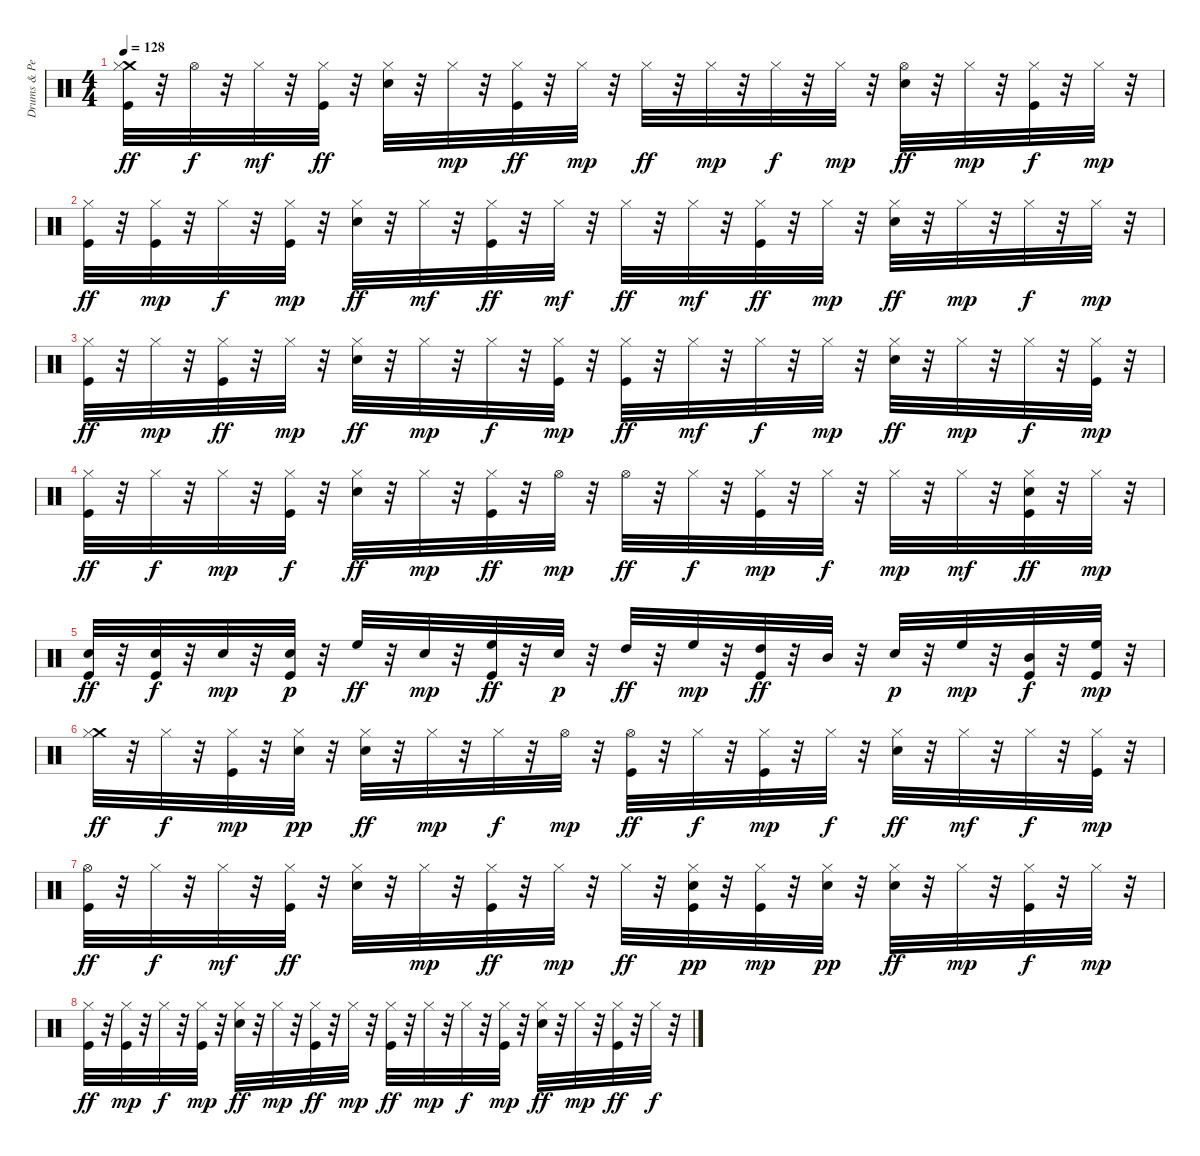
\track ("Drums & Percussion" "Drums & Pe") {instrument percussion}
\staff {score}
\articulation defaults
\ts (4 4)
\tempo 128
\clef neutral
\ks c
("Crash medium (hit)" "Kick (hit)" "Hi-Hat (closed)").32{dy ff} r.32 "Hi-Hat (open)".32{dy f} r.32 "Hi-Hat (closed)".32{dy mf} r.32 ("Kick (hit)" "Hi-Hat (closed)").32{dy ff} r.32 ("Hi-Hat (closed)" "Electric Snare (hit)").32 r.32 "Hi-Hat (closed)".32{dy mp} r.32 ("Kick (hit)" "Hi-Hat (closed)").32{dy ff} r.32 "Hi-Hat (closed)".32{dy mp} r.32 "Hi-Hat (closed)".32{dy ff} r.32 "Hi-Hat (closed)".32{dy mp} r.32 "Hi-Hat (closed)".32{dy f} r.32 "Hi-Hat (closed)".32{dy mp} r.32 ("Hi-Hat (open)" "Electric Snare (hit)").32{dy ff} r.32 "Hi-Hat (closed)".32{dy mp} r.32 ("Kick (hit)" "Hi-Hat (closed)").32{dy f} r.32 "Hi-Hat (closed)".32{dy mp} r.32 |
("Kick (hit)" "Hi-Hat (closed)").32{dy ff} r.32 ("Kick (hit)" "Hi-Hat (closed)").32{dy mp} r.32 "Hi-Hat (closed)".32{dy f} r.32 ("Kick (hit)" "Hi-Hat (closed)").32{dy mp} r.32 ("Hi-Hat (closed)" "Electric Snare (hit)").32{dy ff} r.32 "Hi-Hat (closed)".32{dy mf} r.32 ("Kick (hit)" "Hi-Hat (closed)").32{dy ff} r.32 "Hi-Hat (closed)".32{dy mf} r.32 "Hi-Hat (closed)".32{dy ff} r.32 "Hi-Hat (closed)".32{dy mf} r.32 ("Kick (hit)" "Hi-Hat (closed)").32{dy ff} r.32 "Hi-Hat (closed)".32{dy mp} r.32 ("Hi-Hat (closed)" "Electric Snare (hit)").32{dy ff} r.32 "Hi-Hat (closed)".32{dy mp} r.32 "Hi-Hat (closed)".32{dy f} r.32 "Hi-Hat (closed)".32{dy mp} r.32 |
("Kick (hit)" "Hi-Hat (closed)").32{dy ff} r.32 "Hi-Hat (closed)".32{dy mp} r.32 ("Kick (hit)" "Hi-Hat (closed)").32{dy ff} r.32 "Hi-Hat (closed)".32{dy mp} r.32 ("Hi-Hat (closed)" "Electric Snare (hit)").32{dy ff} r.32 "Hi-Hat (closed)".32{dy mp} r.32 "Hi-Hat (closed)".32{dy f} r.32 ("Kick (hit)" "Hi-Hat (closed)").32{dy mp} r.32 ("Kick (hit)" "Hi-Hat (closed)").32{dy ff} r.32 "Hi-Hat (closed)".32{dy mf} r.32 "Hi-Hat (closed)".32{dy f} r.32 "Hi-Hat (closed)".32{dy mp} r.32 ("Hi-Hat (closed)" "Electric Snare (hit)").32{dy ff} r.32 "Hi-Hat (closed)".32{dy mp} r.32 "Hi-Hat (closed)".32{dy f} r.32 ("Kick (hit)" "Hi-Hat (closed)").32{dy mp} r.32 |
("Kick (hit)" "Hi-Hat (closed)").32{dy ff} r.32 "Hi-Hat (closed)".32{dy f} r.32 "Hi-Hat (closed)".32{dy mp} r.32 ("Kick (hit)" "Hi-Hat (closed)").32{dy f} r.32 ("Hi-Hat (closed)" "Electric Snare (hit)").32{dy ff} r.32 "Hi-Hat (closed)".32{dy mp} r.32 ("Kick (hit)" "Hi-Hat (closed)").32{dy ff} r.32 "Hi-Hat (open)".32{dy mp} r.32 "Hi-Hat (open)".32{dy ff} r.32 "Hi-Hat (closed)".32{dy f} r.32 ("Kick (hit)" "Hi-Hat (closed)").32{dy mp} r.32 "Hi-Hat (closed)".32{dy f} r.32 "Hi-Hat (closed)".32{dy mp} r.32 "Hi-Hat (closed)".32{dy mf} r.32 ("Kick (hit)" "Hi-Hat (closed)" "Electric Snare (hit)").32{dy ff} r.32 "Hi-Hat (closed)".32{dy mp} r.32 |
("Kick (hit)" "Electric Snare (hit)").32{dy ff} r.32 ("Kick (hit)" "Electric Snare (hit)").32{dy f} r.32 "Electric Snare (hit)".32{dy mp} r.32 ("Kick (hit)" "Electric Snare (hit)").32{dy p} r.32 "High Floor Tom (hit)".32{dy ff} r.32 "Electric Snare (hit)".32{dy mp} r.32 ("Kick (hit)" "High Floor Tom (hit)").32{dy ff} r.32 "Electric Snare (hit)".32{dy p} r.32 "High Tom (hit)".32{dy ff} r.32 "High Floor Tom (hit)".32{dy mp} r.32 ("Kick (hit)" "High Tom (hit)").32{dy ff} r.32 "Mid Tom (hit)".32 r.32 "Electric Snare (hit)".32{dy p} r.32 "High Floor Tom (hit)".32{dy mp} r.32 ("Kick (hit)" "Mid Tom (hit)").32{dy f} r.32 ("Kick (hit)" "High Floor Tom (hit)").32{dy mp} r.32 |
("Crash medium (hit)" "Hi-Hat (closed)").32{dy ff} r.32 "Hi-Hat (closed)".32{dy f} r.32 ("Kick (hit)" "Hi-Hat (closed)").32{dy mp} r.32 ("Hi-Hat (closed)" "Electric Snare (hit)").32{dy pp} r.32 ("Hi-Hat (closed)" "Electric Snare (hit)").32{dy ff} r.32 "Hi-Hat (closed)".32{dy mp} r.32 "Hi-Hat (closed)".32{dy f} r.32 "Hi-Hat (open)".32{dy mp} r.32 ("Kick (hit)" "Hi-Hat (open)").32{dy ff} r.32 "Hi-Hat (closed)".32{dy f} r.32 ("Kick (hit)" "Hi-Hat (closed)").32{dy mp} r.32 "Hi-Hat (closed)".32{dy f} r.32 ("Hi-Hat (closed)" "Electric Snare (hit)").32{dy ff} r.32 "Hi-Hat (closed)".32{dy mf} r.32 "Hi-Hat (closed)".32{dy f} r.32 ("Kick (hit)" "Hi-Hat (closed)").32{dy mp} r.32 |
("Kick (hit)" "Hi-Hat (open)").32{dy ff} r.32 "Hi-Hat (closed)".32{dy f} r.32 "Hi-Hat (closed)".32{dy mf} r.32 ("Kick (hit)" "Hi-Hat (closed)").32{dy ff} r.32 ("Hi-Hat (closed)" "Electric Snare (hit)").32 r.32 "Hi-Hat (closed)".32{dy mp} r.32 ("Kick (hit)" "Hi-Hat (closed)").32{dy ff} r.32 "Hi-Hat (closed)".32{dy mp} r.32 "Hi-Hat (closed)".32{dy ff} r.32 ("Kick (hit)" "Hi-Hat (closed)" "Electric Snare (hit)").32{dy pp} r.32 ("Kick (hit)" "Hi-Hat (closed)").32{dy mp} r.32 ("Hi-Hat (closed)" "Electric Snare (hit)").32{dy pp} r.32 ("Hi-Hat (closed)" "Electric Snare (hit)").32{dy ff} r.32 "Hi-Hat (closed)".32{dy mp} r.32 ("Kick (hit)" "Hi-Hat (closed)").32{dy f} r.32 "Hi-Hat (closed)".32{dy mp} r.32 |
("Kick (hit)" "Hi-Hat (closed)").32{dy ff} r.32 ("Kick (hit)" "Hi-Hat (closed)").32{dy mp} r.32 "Hi-Hat (closed)".32{dy f} r.32 ("Kick (hit)" "Hi-Hat (closed)").32{dy mp} r.32 ("Hi-Hat (closed)" "Electric Snare (hit)").32{dy ff} r.32 "Hi-Hat (closed)".32{dy mp} r.32 ("Kick (hit)" "Hi-Hat (closed)").32{dy ff} r.32 "Hi-Hat (closed)".32{dy mp} r.32 ("Kick (hit)" "Hi-Hat (closed)").32{dy ff} r.32 "Hi-Hat (closed)".32{dy mp} r.32 "Hi-Hat (closed)".32{dy f} r.32 ("Kick (hit)" "Hi-Hat (closed)").32{dy mp} r.32 ("Hi-Hat (closed)" "Electric Snare (hit)").32{dy ff} r.32 "Hi-Hat (closed)".32{dy mp} r.32 ("Kick (hit)" "Hi-Hat (closed)").32{dy ff} r.32 "Hi-Hat (closed)".32{dy f} r.32
